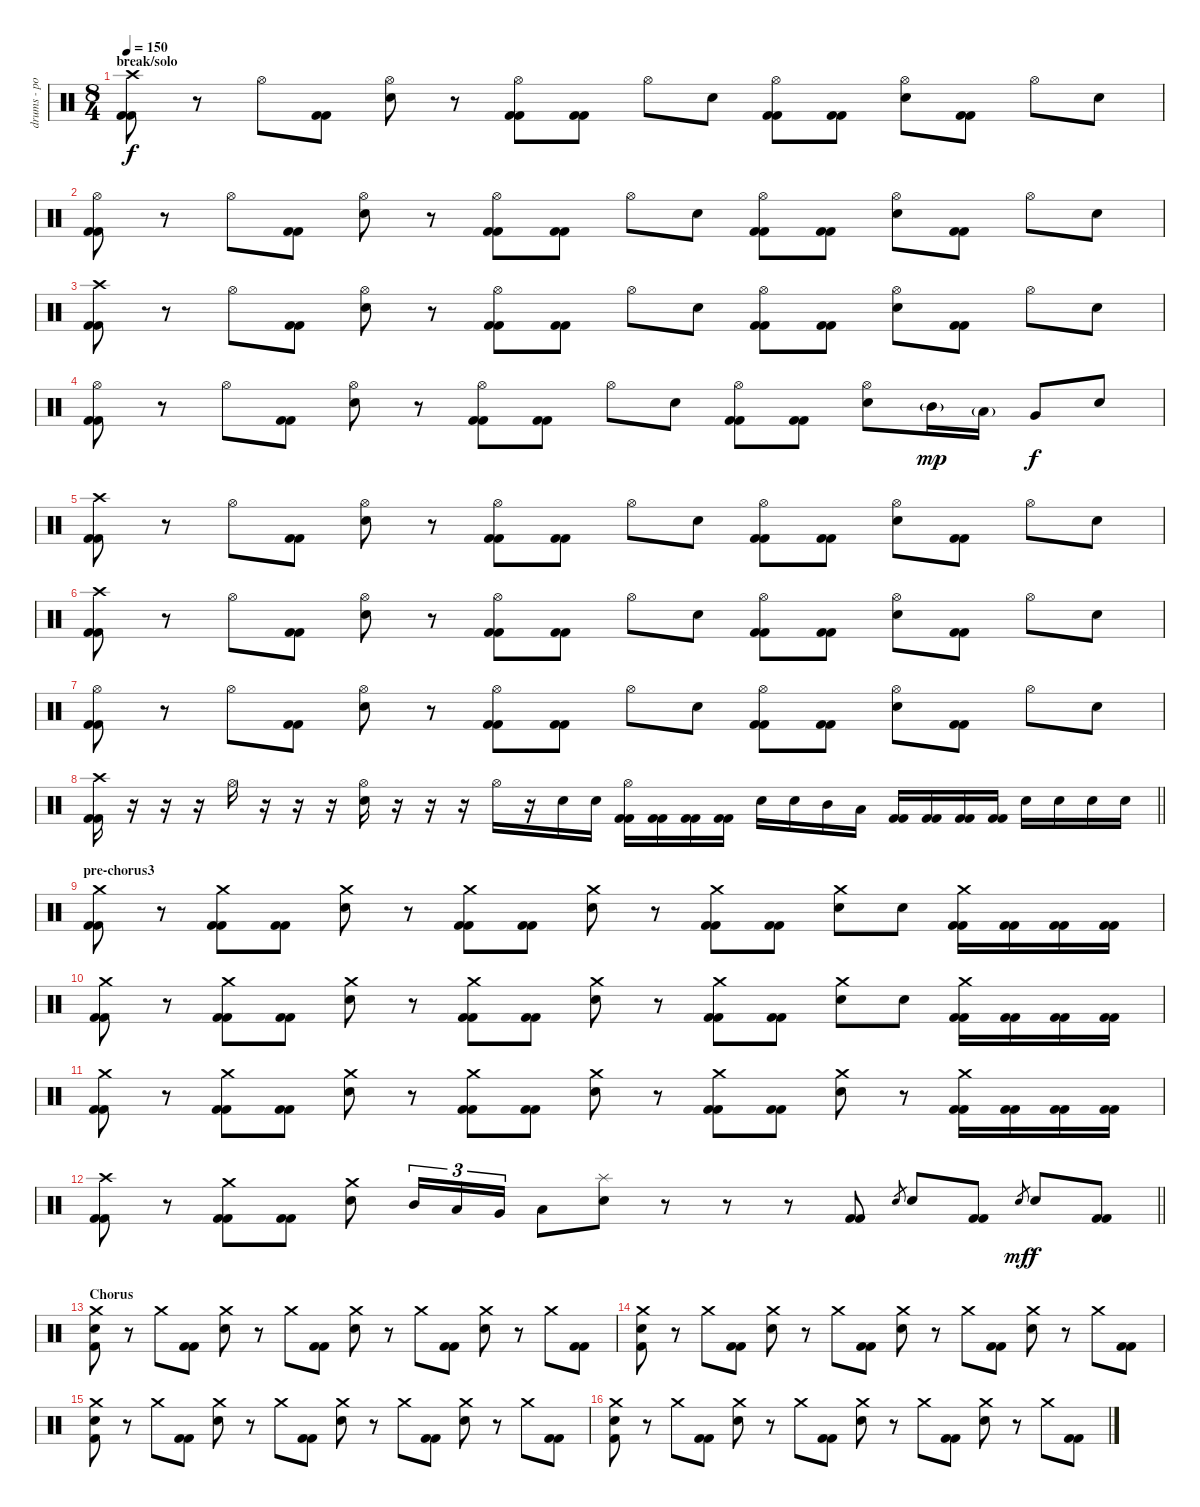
\track ("drums - portnoy" "drums - po") {instrument percussion}
\staff {score}
\articulation defaults
\ts (8 4)
\section ("" "break/solo")
\tempo 150
\clef neutral
\ks c
("Crash high (hit)" "Kick (hit) 2" "Kick (hit) 2").8{dy f} r.8 "Hi-Hat (open)".8 ("Kick (hit) 2" "Kick (hit) 2").8 ("Hi-Hat (open)" "Electric Snare (hit)").8 r.8 ("Hi-Hat (open)" "Kick (hit) 2" "Kick (hit) 2").8 ("Kick (hit) 2" "Kick (hit) 2").8 "Hi-Hat (open)".8 "Electric Snare (hit)".8 ("Hi-Hat (open)" "Kick (hit) 2" "Kick (hit) 2").8 ("Kick (hit) 2" "Kick (hit) 2").8 ("Hi-Hat (open)" "Electric Snare (hit)").8 ("Kick (hit) 2" "Kick (hit) 2").8 "Hi-Hat (open)".8 "Electric Snare (hit)".8 |
("Hi-Hat (open)" "Kick (hit) 2" "Kick (hit) 2").8 r.8 "Hi-Hat (open)".8 ("Kick (hit) 2" "Kick (hit) 2").8 ("Hi-Hat (open)" "Electric Snare (hit)").8 r.8 ("Hi-Hat (open)" "Kick (hit) 2" "Kick (hit) 2").8 ("Kick (hit) 2" "Kick (hit) 2").8 "Hi-Hat (open)".8 "Electric Snare (hit)".8 ("Hi-Hat (open)" "Kick (hit) 2" "Kick (hit) 2").8 ("Kick (hit) 2" "Kick (hit) 2").8 ("Hi-Hat (open)" "Electric Snare (hit)").8 ("Kick (hit) 2" "Kick (hit) 2").8 "Hi-Hat (open)".8 "Electric Snare (hit)".8 |
("Crash high (hit)" "Kick (hit) 2" "Kick (hit) 2").8 r.8 "Hi-Hat (open)".8 ("Kick (hit) 2" "Kick (hit) 2").8 ("Hi-Hat (open)" "Electric Snare (hit)").8 r.8 ("Hi-Hat (open)" "Kick (hit) 2" "Kick (hit) 2").8 ("Kick (hit) 2" "Kick (hit) 2").8 "Hi-Hat (open)".8 "Electric Snare (hit)".8 ("Hi-Hat (open)" "Kick (hit) 2" "Kick (hit) 2").8 ("Kick (hit) 2" "Kick (hit) 2").8 ("Hi-Hat (open)" "Electric Snare (hit)").8 ("Kick (hit) 2" "Kick (hit) 2").8 "Hi-Hat (open)".8 "Electric Snare (hit)".8 |
("Hi-Hat (open)" "Kick (hit) 2" "Kick (hit) 2").8 r.8 "Hi-Hat (open)".8 ("Kick (hit) 2" "Kick (hit) 2").8 ("Hi-Hat (open)" "Electric Snare (hit)").8 r.8 ("Hi-Hat (open)" "Kick (hit) 2" "Kick (hit) 2").8 ("Kick (hit) 2" "Kick (hit) 2").8 "Hi-Hat (open)".8 "Electric Snare (hit)".8 ("Hi-Hat (open)" "Kick (hit) 2" "Kick (hit) 2").8 ("Kick (hit) 2" "Kick (hit) 2").8 ("Hi-Hat (open)" "Electric Snare (hit)").8 "Mid Tom (hit)"{g}.16{dy mp} "Low Tom (hit)"{g}.16 "Very Low Tom (hit)".8{dy f} "Electric Snare (hit)".8 |
("Crash high (hit)" "Kick (hit) 2" "Kick (hit) 2").8 r.8 "Hi-Hat (open)".8 ("Kick (hit) 2" "Kick (hit) 2").8 ("Hi-Hat (open)" "Electric Snare (hit)").8 r.8 ("Hi-Hat (open)" "Kick (hit) 2" "Kick (hit) 2").8 ("Kick (hit) 2" "Kick (hit) 2").8 "Hi-Hat (open)".8 "Electric Snare (hit)".8 ("Hi-Hat (open)" "Kick (hit) 2" "Kick (hit) 2").8 ("Kick (hit) 2" "Kick (hit) 2").8 ("Hi-Hat (open)" "Electric Snare (hit)").8 ("Kick (hit) 2" "Kick (hit) 2").8 "Hi-Hat (open)".8 "Electric Snare (hit)".8 |
("Crash high (hit)" "Kick (hit) 2" "Kick (hit) 2").8 r.8 "Hi-Hat (open)".8 ("Kick (hit) 2" "Kick (hit) 2").8 ("Hi-Hat (open)" "Electric Snare (hit)").8 r.8 ("Hi-Hat (open)" "Kick (hit) 2" "Kick (hit) 2").8 ("Kick (hit) 2" "Kick (hit) 2").8 "Hi-Hat (open)".8 "Electric Snare (hit)".8 ("Hi-Hat (open)" "Kick (hit) 2" "Kick (hit) 2").8 ("Kick (hit) 2" "Kick (hit) 2").8 ("Hi-Hat (open)" "Electric Snare (hit)").8 ("Kick (hit) 2" "Kick (hit) 2").8 "Hi-Hat (open)".8 "Electric Snare (hit)".8 |
("Hi-Hat (open)" "Kick (hit) 2" "Kick (hit) 2").8 r.8 "Hi-Hat (open)".8 ("Kick (hit) 2" "Kick (hit) 2").8 ("Hi-Hat (open)" "Electric Snare (hit)").8 r.8 ("Hi-Hat (open)" "Kick (hit) 2" "Kick (hit) 2").8 ("Kick (hit) 2" "Kick (hit) 2").8 "Hi-Hat (open)".8 "Electric Snare (hit)".8 ("Hi-Hat (open)" "Kick (hit) 2" "Kick (hit) 2").8 ("Kick (hit) 2" "Kick (hit) 2").8 ("Hi-Hat (open)" "Electric Snare (hit)").8 ("Kick (hit) 2" "Kick (hit) 2").8 "Hi-Hat (open)".8 "Electric Snare (hit)".8 |
\barLineRight lightlight
("Crash high (hit)" "Kick (hit) 2" "Kick (hit) 2").16 r.16 r.16 r.16 "Hi-Hat (open)".16 r.16 r.16 r.16 ("Hi-Hat (open)" "Electric Snare (hit)").16 r.16 r.16 r.16 "Hi-Hat (open)".16 r.16 "Electric Snare (hit)".16 "Electric Snare (hit)".16 ("Hi-Hat (open)" "Kick (hit) 2" "Kick (hit) 2").16 ("Kick (hit) 2" "Kick (hit) 2").16 ("Kick (hit) 2" "Kick (hit) 2").16 ("Kick (hit) 2" "Kick (hit) 2").16 "Electric Snare (hit)".16 "Electric Snare (hit)".16 "Mid Tom (hit)".16 "Low Tom (hit)".16 ("Kick (hit) 2" "Kick (hit) 2").16 ("Kick (hit) 2" "Kick (hit) 2").16 ("Kick (hit) 2" "Kick (hit) 2").16 ("Kick (hit) 2" "Kick (hit) 2").16 "Electric Snare (hit)".16 "Electric Snare (hit)".16 "Electric Snare (hit)".16 "Electric Snare (hit)".16 |
\section ("" "pre-chorus3")
("Crash medium (hit)" "Kick (hit) 2" "Kick (hit) 2").8 r.8 ("Crash medium (hit)" "Kick (hit) 2" "Kick (hit) 2").8 ("Kick (hit) 2" "Kick (hit) 2").8 ("Crash medium (hit)" "Electric Snare (hit)").8 r.8 ("Crash medium (hit)" "Kick (hit) 2" "Kick (hit) 2").8 ("Kick (hit) 2" "Kick (hit) 2").8 ("Crash medium (hit)" "Electric Snare (hit)").8 r.8 ("Crash medium (hit)" "Kick (hit) 2" "Kick (hit) 2").8 ("Kick (hit) 2" "Kick (hit) 2").8 ("Crash medium (hit)" "Electric Snare (hit)").8 "Electric Snare (hit)".8 ("Crash medium (hit)" "Kick (hit) 2" "Kick (hit) 2").16 ("Kick (hit) 2" "Kick (hit) 2").16 ("Kick (hit) 2" "Kick (hit) 2").16 ("Kick (hit) 2" "Kick (hit) 2").16 |
("Crash medium (hit)" "Kick (hit) 2" "Kick (hit) 2").8 r.8 ("Crash medium (hit)" "Kick (hit) 2" "Kick (hit) 2").8 ("Kick (hit) 2" "Kick (hit) 2").8 ("Crash medium (hit)" "Electric Snare (hit)").8 r.8 ("Crash medium (hit)" "Kick (hit) 2" "Kick (hit) 2").8 ("Kick (hit) 2" "Kick (hit) 2").8 ("Crash medium (hit)" "Electric Snare (hit)").8 r.8 ("Crash medium (hit)" "Kick (hit) 2" "Kick (hit) 2").8 ("Kick (hit) 2" "Kick (hit) 2").8 ("Crash medium (hit)" "Electric Snare (hit)").8 "Electric Snare (hit)".8 ("Crash medium (hit)" "Kick (hit) 2" "Kick (hit) 2").16 ("Kick (hit) 2" "Kick (hit) 2").16 ("Kick (hit) 2" "Kick (hit) 2").16 ("Kick (hit) 2" "Kick (hit) 2").16 |
("Crash medium (hit)" "Kick (hit) 2" "Kick (hit) 2").8 r.8 ("Crash medium (hit)" "Kick (hit) 2" "Kick (hit) 2").8 ("Kick (hit) 2" "Kick (hit) 2").8 ("Crash medium (hit)" "Electric Snare (hit)").8 r.8 ("Crash medium (hit)" "Kick (hit) 2" "Kick (hit) 2").8 ("Kick (hit) 2" "Kick (hit) 2").8 ("Crash medium (hit)" "Electric Snare (hit)").8 r.8 ("Crash medium (hit)" "Kick (hit) 2" "Kick (hit) 2").8 ("Kick (hit) 2" "Kick (hit) 2").8 ("Crash medium (hit)" "Electric Snare (hit)").8 r.8 ("Crash medium (hit)" "Kick (hit) 2" "Kick (hit) 2").16 ("Kick (hit) 2" "Kick (hit) 2").16 ("Kick (hit) 2" "Kick (hit) 2").16 ("Kick (hit) 2" "Kick (hit) 2").16 |
\barLineRight lightlight
("Crash high (hit)" "Kick (hit) 2" "Kick (hit) 2").8 r.8 ("Crash medium (hit)" "Kick (hit) 2" "Kick (hit) 2").8 ("Kick (hit) 2" "Kick (hit) 2").8 ("Crash medium (hit)" "Electric Snare (hit)").8 "Mid Tom (hit)".16{tu (3 2)} "Low Tom (hit)".16{tu (3 2)} "Very Low Tom (hit)".16{tu (3 2)} "Low Floor Tom (hit)".8 ("Splash (hit)" "Electric Snare (hit)").8 r.8 r.8 r.8 ("Kick (hit) 2" "Kick (hit) 2").8 "Electric Snare (hit)".8{gr} "Electric Snare (hit)".8 ("Kick (hit) 2" "Kick (hit) 2").8 "Electric Snare (hit)".8{gr dy mf} "Electric Snare (hit)".8{dy f} ("Kick (hit) 2" "Kick (hit) 2").8 |
\section ("" "Chorus")
("Crash medium (hit)" "Electric Snare (hit)" "Kick (hit) 2").8 r.8 "Crash medium (hit)".8 ("Kick (hit) 2" "Kick (hit) 2").8 ("Crash medium (hit)" "Electric Snare (hit)").8 r.8 "Crash medium (hit)".8 ("Kick (hit) 2" "Kick (hit) 2").8 ("Crash medium (hit)" "Electric Snare (hit)").8 r.8 "Crash medium (hit)".8 ("Kick (hit) 2" "Kick (hit) 2").8 ("Crash medium (hit)" "Electric Snare (hit)").8 r.8 "Crash medium (hit)".8 ("Kick (hit) 2" "Kick (hit) 2").8 |
("Crash medium (hit)" "Electric Snare (hit)" "Kick (hit) 2").8 r.8 "Crash medium (hit)".8 ("Kick (hit) 2" "Kick (hit) 2").8 ("Crash medium (hit)" "Electric Snare (hit)").8 r.8 "Crash medium (hit)".8 ("Kick (hit) 2" "Kick (hit) 2").8 ("Crash medium (hit)" "Electric Snare (hit)").8 r.8 "Crash medium (hit)".8 ("Kick (hit) 2" "Kick (hit) 2").8 ("Crash medium (hit)" "Electric Snare (hit)").8 r.8 "Crash medium (hit)".8 ("Kick (hit) 2" "Kick (hit) 2").8 |
("Crash medium (hit)" "Electric Snare (hit)" "Kick (hit) 2").8 r.8 "Crash medium (hit)".8 ("Kick (hit) 2" "Kick (hit) 2").8 ("Crash medium (hit)" "Electric Snare (hit)").8 r.8 "Crash medium (hit)".8 ("Kick (hit) 2" "Kick (hit) 2").8 ("Crash medium (hit)" "Electric Snare (hit)").8 r.8 "Crash medium (hit)".8 ("Kick (hit) 2" "Kick (hit) 2").8 ("Crash medium (hit)" "Electric Snare (hit)").8 r.8 "Crash medium (hit)".8 ("Kick (hit) 2" "Kick (hit) 2").8 |
("Crash medium (hit)" "Electric Snare (hit)" "Kick (hit) 2").8 r.8 "Crash medium (hit)".8 ("Kick (hit) 2" "Kick (hit) 2").8 ("Crash medium (hit)" "Electric Snare (hit)").8 r.8 "Crash medium (hit)".8 ("Kick (hit) 2" "Kick (hit) 2").8 ("Crash medium (hit)" "Electric Snare (hit)").8 r.8 "Crash medium (hit)".8 ("Kick (hit) 2" "Kick (hit) 2").8 ("Crash medium (hit)" "Electric Snare (hit)").8 r.8 "Crash medium (hit)".8 ("Kick (hit) 2" "Kick (hit) 2").8
